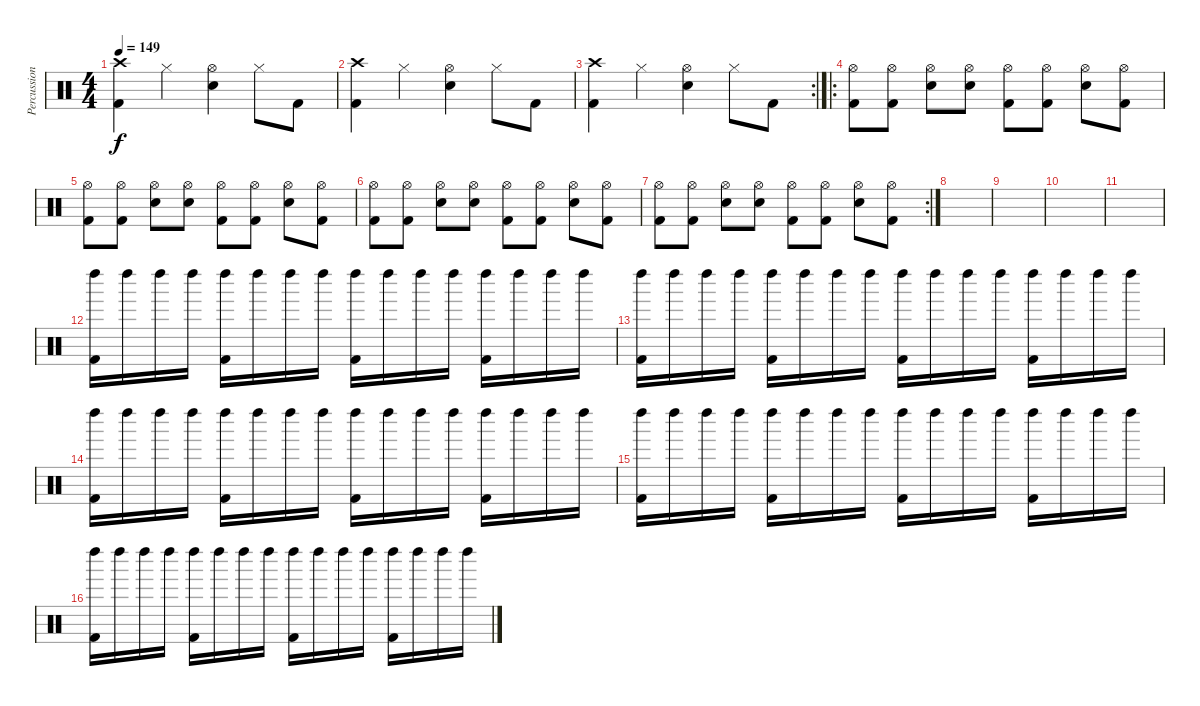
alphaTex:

\track ("Percussion" "Percussion") {instrument percussion}
\staff {score}
\articulation defaults
\ts (4 4)
\tempo 149
\clef neutral
\ks c
("Crash high (hit)" "Kick (hit) 2").4{dy f} "Hi-Hat (closed)".4 ("Hi-Hat (open)" "Electric Snare (hit)").4 "Hi-Hat (closed)".8 "Kick (hit) 2".8 |
("Crash high (hit)" "Kick (hit) 2").4 "Hi-Hat (closed)".4 ("Hi-Hat (open)" "Electric Snare (hit)").4 "Hi-Hat (closed)".8 "Kick (hit) 2".8 |
\rc 2
("Crash high (hit)" "Kick (hit) 2").4 "Hi-Hat (closed)".4 ("Hi-Hat (open)" "Electric Snare (hit)").4 "Hi-Hat (closed)".8 "Kick (hit) 2".8 |
\ro
("Kick (hit) 2" "Hi-Hat (open)").8 ("Kick (hit) 2" "Hi-Hat (open)").8 ("Electric Snare (hit)" "Hi-Hat (open)").8 ("Electric Snare (hit)" "Hi-Hat (open)").8 ("Kick (hit) 2" "Hi-Hat (open)").8 ("Kick (hit) 2" "Hi-Hat (open)").8 ("Electric Snare (hit)" "Hi-Hat (open)").8 ("Kick (hit) 2" "Hi-Hat (open)").8 |
("Kick (hit) 2" "Hi-Hat (open)").8 ("Kick (hit) 2" "Hi-Hat (open)").8 ("Electric Snare (hit)" "Hi-Hat (open)").8 ("Electric Snare (hit)" "Hi-Hat (open)").8 ("Kick (hit) 2" "Hi-Hat (open)").8 ("Kick (hit) 2" "Hi-Hat (open)").8 ("Electric Snare (hit)" "Hi-Hat (open)").8 ("Kick (hit) 2" "Hi-Hat (open)").8 |
("Kick (hit) 2" "Hi-Hat (open)").8 ("Kick (hit) 2" "Hi-Hat (open)").8 ("Electric Snare (hit)" "Hi-Hat (open)").8 ("Electric Snare (hit)" "Hi-Hat (open)").8 ("Kick (hit) 2" "Hi-Hat (open)").8 ("Kick (hit) 2" "Hi-Hat (open)").8 ("Electric Snare (hit)" "Hi-Hat (open)").8 ("Kick (hit) 2" "Hi-Hat (open)").8 |
\rc 2
("Kick (hit) 2" "Hi-Hat (open)").8 ("Kick (hit) 2" "Hi-Hat (open)").8 ("Electric Snare (hit)" "Hi-Hat (open)").8 ("Electric Snare (hit)" "Hi-Hat (open)").8 ("Kick (hit) 2" "Hi-Hat (open)").8 ("Kick (hit) 2" "Hi-Hat (open)").8 ("Electric Snare (hit)" "Hi-Hat (open)").8 ("Kick (hit) 2" "Hi-Hat (open)").8 |
|
|
|
|
("Left Maraca (hit)" "Kick (hit) 2").16 "Left Maraca (hit)".16 "Left Maraca (hit)".16 "Left Maraca (hit)".16 ("Left Maraca (hit)" "Kick (hit) 2").16 "Left Maraca (hit)".16 "Left Maraca (hit)".16 "Left Maraca (hit)".16 ("Left Maraca (hit)" "Kick (hit) 2").16 "Left Maraca (hit)".16 "Left Maraca (hit)".16 "Left Maraca (hit)".16 ("Left Maraca (hit)" "Kick (hit) 2").16 "Left Maraca (hit)".16 "Left Maraca (hit)".16 "Left Maraca (hit)".16 |
("Left Maraca (hit)" "Kick (hit) 2").16 "Left Maraca (hit)".16 "Left Maraca (hit)".16 "Left Maraca (hit)".16 ("Left Maraca (hit)" "Kick (hit) 2").16 "Left Maraca (hit)".16 "Left Maraca (hit)".16 "Left Maraca (hit)".16 ("Left Maraca (hit)" "Kick (hit) 2").16 "Left Maraca (hit)".16 "Left Maraca (hit)".16 "Left Maraca (hit)".16 ("Left Maraca (hit)" "Kick (hit) 2").16 "Left Maraca (hit)".16 "Left Maraca (hit)".16 "Left Maraca (hit)".16 |
("Left Maraca (hit)" "Kick (hit) 2").16 "Left Maraca (hit)".16 "Left Maraca (hit)".16 "Left Maraca (hit)".16 ("Left Maraca (hit)" "Kick (hit) 2").16 "Left Maraca (hit)".16 "Left Maraca (hit)".16 "Left Maraca (hit)".16 ("Left Maraca (hit)" "Kick (hit) 2").16 "Left Maraca (hit)".16 "Left Maraca (hit)".16 "Left Maraca (hit)".16 ("Left Maraca (hit)" "Kick (hit) 2").16 "Left Maraca (hit)".16 "Left Maraca (hit)".16 "Left Maraca (hit)".16 |
("Left Maraca (hit)" "Kick (hit) 2").16 "Left Maraca (hit)".16 "Left Maraca (hit)".16 "Left Maraca (hit)".16 ("Left Maraca (hit)" "Kick (hit) 2").16 "Left Maraca (hit)".16 "Left Maraca (hit)".16 "Left Maraca (hit)".16 ("Left Maraca (hit)" "Kick (hit) 2").16 "Left Maraca (hit)".16 "Left Maraca (hit)".16 "Left Maraca (hit)".16 ("Left Maraca (hit)" "Kick (hit) 2").16 "Left Maraca (hit)".16 "Left Maraca (hit)".16 "Left Maraca (hit)".16 |
("Left Maraca (hit)" "Kick (hit) 2").16 "Left Maraca (hit)".16 "Left Maraca (hit)".16 "Left Maraca (hit)".16 ("Left Maraca (hit)" "Kick (hit) 2").16 "Left Maraca (hit)".16 "Left Maraca (hit)".16 "Left Maraca (hit)".16 ("Left Maraca (hit)" "Kick (hit) 2").16 "Left Maraca (hit)".16 "Left Maraca (hit)".16 "Left Maraca (hit)".16 ("Left Maraca (hit)" "Kick (hit) 2").16 "Left Maraca (hit)".16 "Left Maraca (hit)".16 "Left Maraca (hit)".16
